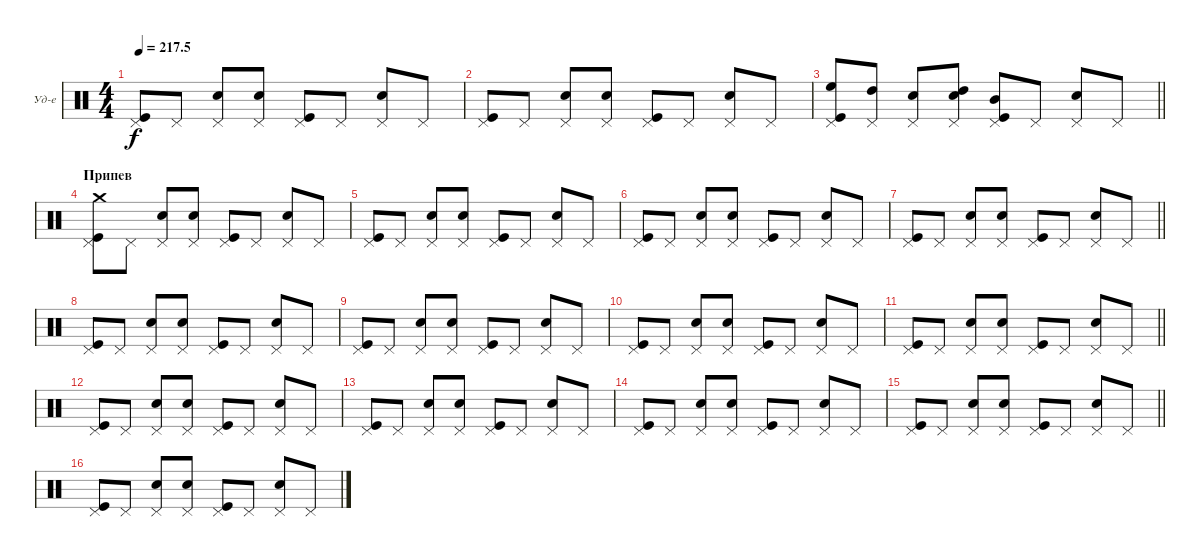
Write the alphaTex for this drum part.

\bracketExtendMode groupsimilarinstruments
\firstSystemTrackNameOrientation horizontal
\otherSystemsTrackNameOrientation horizontal
\track ("Ударные" "Уд-е") {instrument percussion}
\staff {score}
\articulation defaults
\ts (4 4)
\tempo
217.5
\accidentals auto
\clef neutral
\ottava regular
\simile none
\ks c
("Pedal Hi-Hat (hit)" "Kick (hit)").8{dy f} "Pedal Hi-Hat (hit)".8 ("Pedal Hi-Hat (hit)" "Snare (hit) 2").8 ("Pedal Hi-Hat (hit)" "Snare (hit) 2").8 ("Pedal Hi-Hat (hit)" "Kick (hit)").8 "Pedal Hi-Hat (hit)".8 ("Pedal Hi-Hat (hit)" "Snare (hit) 2").8 "Pedal Hi-Hat (hit)".8 |
("Pedal Hi-Hat (hit)" "Kick (hit)").8 "Pedal Hi-Hat (hit)".8 ("Pedal Hi-Hat (hit)" "Snare (hit) 2").8 ("Pedal Hi-Hat (hit)" "Snare (hit) 2").8 ("Pedal Hi-Hat (hit)" "Kick (hit)").8 "Pedal Hi-Hat (hit)".8 ("Pedal Hi-Hat (hit)" "Snare (hit) 2").8 "Pedal Hi-Hat (hit)".8 |
\barLineRight lightlight
("Pedal Hi-Hat (hit)" "Kick (hit)" "High Floor Tom (hit)").8 ("Pedal Hi-Hat (hit)" "High Tom (hit)").8 ("Pedal Hi-Hat (hit)" "Snare (hit) 2").8 ("Pedal Hi-Hat (hit)" "Snare (hit) 2" "High Tom (hit)").8 ("Pedal Hi-Hat (hit)" "Kick (hit)" "Mid Tom (hit)").8 "Pedal Hi-Hat (hit)".8 ("Pedal Hi-Hat (hit)" "Snare (hit) 2").8 "Pedal Hi-Hat (hit)".8 |
\section ("" "Припев")
("Pedal Hi-Hat (hit)" "Kick (hit)" "Crash medium (hit)").8 "Pedal Hi-Hat (hit)".8 ("Pedal Hi-Hat (hit)" "Snare (hit) 2").8 ("Pedal Hi-Hat (hit)" "Snare (hit) 2").8 ("Pedal Hi-Hat (hit)" "Kick (hit)").8 "Pedal Hi-Hat (hit)".8 ("Pedal Hi-Hat (hit)" "Snare (hit) 2").8 "Pedal Hi-Hat (hit)".8 |
("Pedal Hi-Hat (hit)" "Kick (hit)").8 "Pedal Hi-Hat (hit)".8 ("Pedal Hi-Hat (hit)" "Snare (hit) 2").8 ("Pedal Hi-Hat (hit)" "Snare (hit) 2").8 ("Pedal Hi-Hat (hit)" "Kick (hit)").8 "Pedal Hi-Hat (hit)".8 ("Pedal Hi-Hat (hit)" "Snare (hit) 2").8 "Pedal Hi-Hat (hit)".8 |
("Pedal Hi-Hat (hit)" "Kick (hit)").8 "Pedal Hi-Hat (hit)".8 ("Pedal Hi-Hat (hit)" "Snare (hit) 2").8 ("Pedal Hi-Hat (hit)" "Snare (hit) 2").8 ("Pedal Hi-Hat (hit)" "Kick (hit)").8 "Pedal Hi-Hat (hit)".8 ("Pedal Hi-Hat (hit)" "Snare (hit) 2").8 "Pedal Hi-Hat (hit)".8 |
\barLineRight lightlight
("Pedal Hi-Hat (hit)" "Kick (hit)").8 "Pedal Hi-Hat (hit)".8 ("Pedal Hi-Hat (hit)" "Snare (hit) 2").8 ("Pedal Hi-Hat (hit)" "Snare (hit) 2").8 ("Pedal Hi-Hat (hit)" "Kick (hit)").8 "Pedal Hi-Hat (hit)".8 ("Pedal Hi-Hat (hit)" "Snare (hit) 2").8 "Pedal Hi-Hat (hit)".8 |
("Pedal Hi-Hat (hit)" "Kick (hit)").8 "Pedal Hi-Hat (hit)".8 ("Pedal Hi-Hat (hit)" "Snare (hit) 2").8 ("Pedal Hi-Hat (hit)" "Snare (hit) 2").8 ("Pedal Hi-Hat (hit)" "Kick (hit)").8 "Pedal Hi-Hat (hit)".8 ("Pedal Hi-Hat (hit)" "Snare (hit) 2").8 "Pedal Hi-Hat (hit)".8 |
("Pedal Hi-Hat (hit)" "Kick (hit)").8 "Pedal Hi-Hat (hit)".8 ("Pedal Hi-Hat (hit)" "Snare (hit) 2").8 ("Pedal Hi-Hat (hit)" "Snare (hit) 2").8 ("Pedal Hi-Hat (hit)" "Kick (hit)").8 "Pedal Hi-Hat (hit)".8 ("Pedal Hi-Hat (hit)" "Snare (hit) 2").8 "Pedal Hi-Hat (hit)".8 |
("Pedal Hi-Hat (hit)" "Kick (hit)").8 "Pedal Hi-Hat (hit)".8 ("Pedal Hi-Hat (hit)" "Snare (hit) 2").8 ("Pedal Hi-Hat (hit)" "Snare (hit) 2").8 ("Pedal Hi-Hat (hit)" "Kick (hit)").8 "Pedal Hi-Hat (hit)".8 ("Pedal Hi-Hat (hit)" "Snare (hit) 2").8 "Pedal Hi-Hat (hit)".8 |
\barLineRight lightlight
("Pedal Hi-Hat (hit)" "Kick (hit)").8 "Pedal Hi-Hat (hit)".8 ("Pedal Hi-Hat (hit)" "Snare (hit) 2").8 ("Pedal Hi-Hat (hit)" "Snare (hit) 2").8 ("Pedal Hi-Hat (hit)" "Kick (hit)").8 "Pedal Hi-Hat (hit)".8 ("Pedal Hi-Hat (hit)" "Snare (hit) 2").8 "Pedal Hi-Hat (hit)".8 |
("Pedal Hi-Hat (hit)" "Kick (hit)").8 "Pedal Hi-Hat (hit)".8 ("Pedal Hi-Hat (hit)" "Snare (hit) 2").8 ("Pedal Hi-Hat (hit)" "Snare (hit) 2").8 ("Pedal Hi-Hat (hit)" "Kick (hit)").8 "Pedal Hi-Hat (hit)".8 ("Pedal Hi-Hat (hit)" "Snare (hit) 2").8 "Pedal Hi-Hat (hit)".8 |
("Pedal Hi-Hat (hit)" "Kick (hit)").8 "Pedal Hi-Hat (hit)".8 ("Pedal Hi-Hat (hit)" "Snare (hit) 2").8 ("Pedal Hi-Hat (hit)" "Snare (hit) 2").8 ("Pedal Hi-Hat (hit)" "Kick (hit)").8 "Pedal Hi-Hat (hit)".8 ("Pedal Hi-Hat (hit)" "Snare (hit) 2").8 "Pedal Hi-Hat (hit)".8 |
("Pedal Hi-Hat (hit)" "Kick (hit)").8 "Pedal Hi-Hat (hit)".8 ("Pedal Hi-Hat (hit)" "Snare (hit) 2").8 ("Pedal Hi-Hat (hit)" "Snare (hit) 2").8 ("Pedal Hi-Hat (hit)" "Kick (hit)").8 "Pedal Hi-Hat (hit)".8 ("Pedal Hi-Hat (hit)" "Snare (hit) 2").8 "Pedal Hi-Hat (hit)".8 |
\barLineRight lightlight
("Pedal Hi-Hat (hit)" "Kick (hit)").8 "Pedal Hi-Hat (hit)".8 ("Pedal Hi-Hat (hit)" "Snare (hit) 2").8 ("Pedal Hi-Hat (hit)" "Snare (hit) 2").8 ("Pedal Hi-Hat (hit)" "Kick (hit)").8 "Pedal Hi-Hat (hit)".8 ("Pedal Hi-Hat (hit)" "Snare (hit) 2").8 "Pedal Hi-Hat (hit)".8 |
("Pedal Hi-Hat (hit)" "Kick (hit)").8 "Pedal Hi-Hat (hit)".8 ("Pedal Hi-Hat (hit)" "Snare (hit) 2").8 ("Pedal Hi-Hat (hit)" "Snare (hit) 2").8 ("Pedal Hi-Hat (hit)" "Kick (hit)").8 "Pedal Hi-Hat (hit)".8 ("Pedal Hi-Hat (hit)" "Snare (hit) 2").8 "Pedal Hi-Hat (hit)".8
